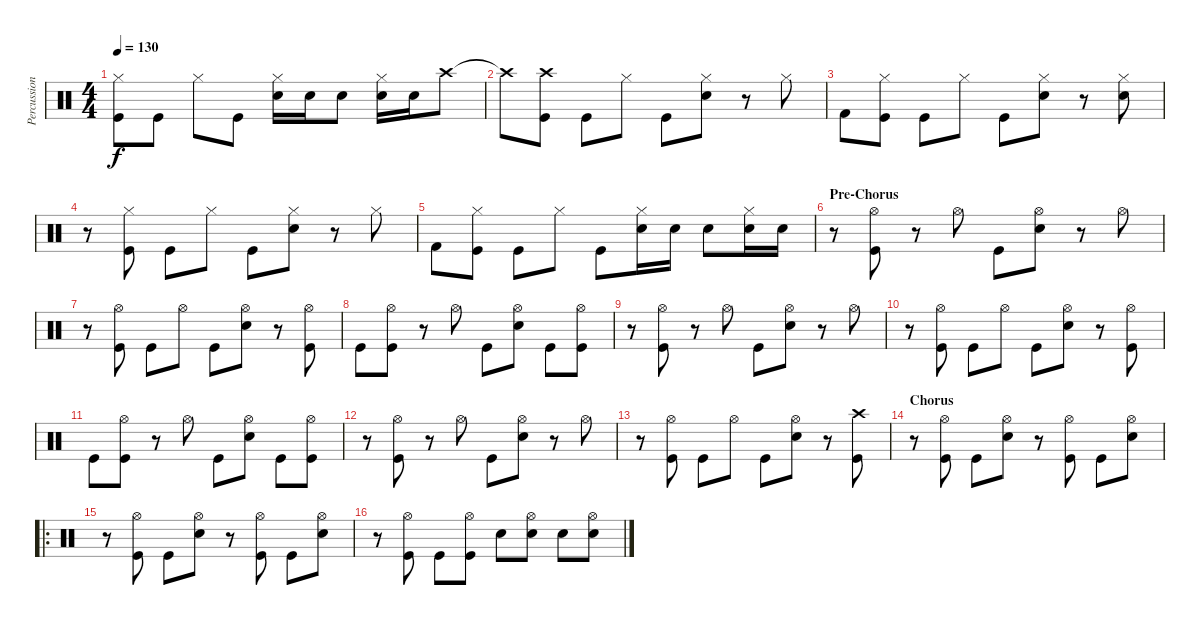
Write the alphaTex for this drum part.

\track ("Percussion" "Percussion") {instrument percussion}
\staff {score}
\articulation defaults
\ts (4 4)
\tempo 130
\clef neutral
\ks c
("Hi-Hat (closed)" "Kick (hit)").8{dy f} "Kick (hit)".8 "Hi-Hat (closed)".8 "Kick (hit)".8 ("Hi-Hat (closed)" "Snare (hit) 2").16 "Snare (hit) 2".16 "Snare (hit) 2".8 ("Hi-Hat (closed)" "Snare (hit) 2").16 "Snare (hit) 2".16 "Crash high (hit)".8 |
"Crash high (hit)"{t}.8 ("Crash high (hit)" "Kick (hit)").8 "Kick (hit)".8 "Hi-Hat (closed)".8 "Kick (hit)".8 ("Hi-Hat (closed)" "Snare (hit) 2").8 r.8 "Hi-Hat (closed)".8 |
"Kick (hit) 2".8 ("Hi-Hat (closed)" "Kick (hit)").8 "Kick (hit)".8 "Hi-Hat (closed)".8 "Kick (hit)".8 ("Hi-Hat (closed)" "Snare (hit) 2").8 r.8 ("Hi-Hat (closed)" "Snare (hit) 2").8 |
r.8 ("Hi-Hat (closed)" "Kick (hit)").8 "Kick (hit)".8 "Hi-Hat (closed)".8 "Kick (hit)".8 ("Hi-Hat (closed)" "Snare (hit) 2").8 r.8 "Hi-Hat (closed)".8 |
"Kick (hit) 2".8 ("Hi-Hat (closed)" "Kick (hit)").8 "Kick (hit)".8 "Hi-Hat (closed)".8 "Kick (hit)".8 ("Hi-Hat (closed)" "Snare (hit) 2").16 "Snare (hit) 2".16 "Snare (hit) 2".8 ("Hi-Hat (closed)" "Snare (hit) 2").16 "Snare (hit) 2".16 |
\section ("" "Pre-Chorus")
r.8 ("Hi-Hat (open)" "Kick (hit)").8 r.8 "Hi-Hat (open)".8 "Kick (hit)".8 ("Hi-Hat (open)" "Snare (hit) 2").8 r.8 "Hi-Hat (open)".8 |
r.8 ("Hi-Hat (open)" "Kick (hit)").8 "Kick (hit)".8 "Hi-Hat (open)".8 "Kick (hit)".8 ("Hi-Hat (open)" "Snare (hit) 2").8 r.8 ("Hi-Hat (open)" "Kick (hit)").8 |
"Kick (hit)".8 ("Hi-Hat (open)" "Kick (hit)").8 r.8 "Hi-Hat (open)".8 "Kick (hit)".8 ("Hi-Hat (open)" "Snare (hit) 2").8 "Kick (hit)".8 ("Hi-Hat (open)" "Kick (hit)").8 |
r.8 ("Hi-Hat (open)" "Kick (hit)").8 r.8 "Hi-Hat (open)".8 "Kick (hit)".8 ("Hi-Hat (open)" "Snare (hit) 2").8 r.8 "Hi-Hat (open)".8 |
r.8 ("Hi-Hat (open)" "Kick (hit)").8 "Kick (hit)".8 "Hi-Hat (open)".8 "Kick (hit)".8 ("Hi-Hat (open)" "Snare (hit) 2").8 r.8 ("Hi-Hat (open)" "Kick (hit)").8 |
"Kick (hit)".8 ("Hi-Hat (open)" "Kick (hit)").8 r.8 "Hi-Hat (open)".8 "Kick (hit)".8 ("Hi-Hat (open)" "Snare (hit) 2").8 "Kick (hit)".8 ("Hi-Hat (open)" "Kick (hit)").8 |
r.8 ("Hi-Hat (open)" "Kick (hit)").8 r.8 "Hi-Hat (open)".8 "Kick (hit)".8 ("Hi-Hat (open)" "Snare (hit) 2").8 r.8 "Hi-Hat (open)".8 |
r.8 ("Hi-Hat (open)" "Kick (hit)").8 "Kick (hit)".8 "Hi-Hat (open)".8 "Kick (hit)".8 ("Hi-Hat (open)" "Snare (hit) 2").8 r.8 ("Crash high (hit)" "Kick (hit)").8 |
\section ("" "Chorus")
r.8 ("Hi-Hat (open)" "Kick (hit)").8 "Kick (hit)".8 ("Hi-Hat (open)" "Snare (hit) 2").8 r.8 ("Hi-Hat (open)" "Kick (hit)").8 "Kick (hit)".8 ("Hi-Hat (open)" "Snare (hit) 2").8 |
\ro
r.8 ("Hi-Hat (open)" "Kick (hit)").8 "Kick (hit)".8 ("Hi-Hat (open)" "Snare (hit) 2").8 r.8 ("Hi-Hat (open)" "Kick (hit)").8 "Kick (hit)".8 ("Hi-Hat (open)" "Snare (hit) 2").8 |
r.8 ("Hi-Hat (open)" "Kick (hit)").8 "Kick (hit)".8 ("Hi-Hat (open)" "Kick (hit)").8 "Snare (hit) 2".8 ("Hi-Hat (open)" "Snare (hit) 2").8 "Snare (hit) 2".8 ("Hi-Hat (open)" "Snare (hit) 2").8
